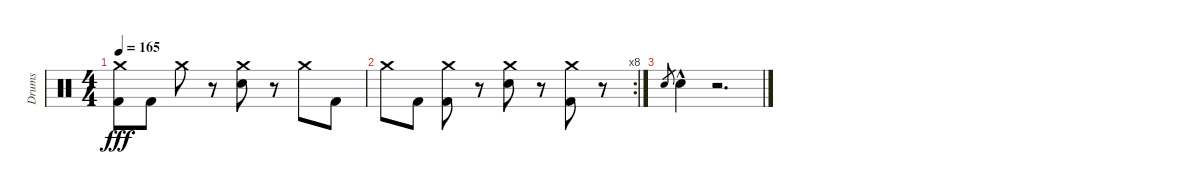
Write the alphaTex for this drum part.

\track ("Drums" "Drums") {instrument percussion}
\staff {score}
\articulation defaults
\ts (4 4)
\tempo 165
\clef neutral
\ks c
("Crash medium (hit)" "Kick (hit) 2").8{dy fff} "Kick (hit) 2".8 "Crash medium (hit)".8 r.8 ("Crash medium (hit)" "Snare (hit) 2").8 r.8 "Crash medium (hit)".8 "Kick (hit) 2".8 |
\rc 8 "Crash medium (hit)".8 "Kick (hit) 2".8
("Crash medium (hit)" "Kick (hit) 2").8 r.8 ("Crash medium (hit)" "Snare (hit) 2").8 r.8 ("Crash medium (hit)" "Kick (hit) 2").8 r.8 |
"Snare (hit) 2".8{gr} "Snare (hit) 2"{hac}.4 r.2{d}
